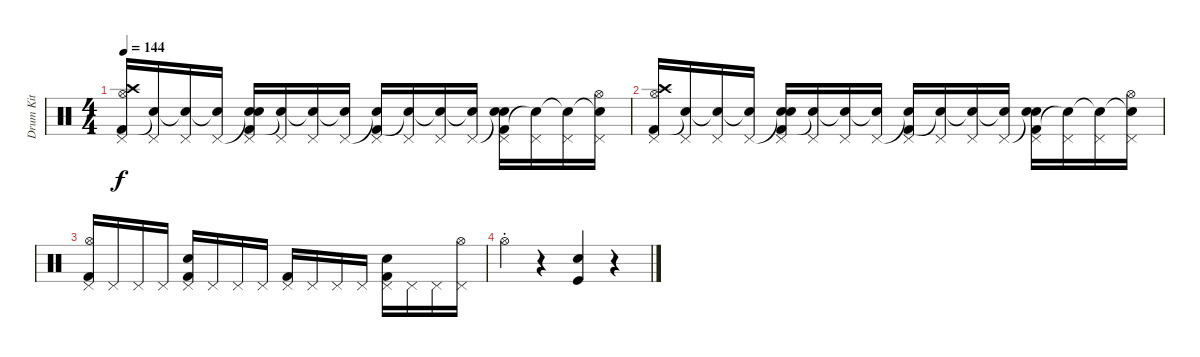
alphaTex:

\track ("Drum Kit" "Drum Kit") {instrument percussion}
\staff {score}
\articulation defaults
\ts (4 4)
\tempo 144
\clef neutral
\ks c
("Kick (hit) 2" "Crash high (hit)" "Hi-Hat (open)" "Pedal Hi-Hat (hit)").16{dy f} ("Snare (hit)"{t} "Pedal Hi-Hat (hit)").16 ("Snare (hit)"{t} "Pedal Hi-Hat (hit)").16 ("Snare (hit)"{t} "Pedal Hi-Hat (hit)").16 ("Kick (hit) 2" "Snare (hit)"{t} "Electric Snare (hit)" "Pedal Hi-Hat (hit)").16 ("Snare (hit)"{t} "Pedal Hi-Hat (hit)").16 ("Snare (hit)"{t} "Pedal Hi-Hat (hit)").16 ("Snare (hit)"{t} "Pedal Hi-Hat (hit)").16 ("Kick (hit) 2" "Snare (hit)"{t} "Pedal Hi-Hat (hit)").16 ("Snare (hit)"{t} "Pedal Hi-Hat (hit)").16 ("Snare (hit)"{t} "Pedal Hi-Hat (hit)").16 ("Snare (hit)"{t} "Pedal Hi-Hat (hit)").16 ("Kick (hit) 2" "Snare (hit)"{t} "Electric Snare (hit)" "Pedal Hi-Hat (hit)").16 ("Snare (hit)"{t} "Pedal Hi-Hat (hit)").16 ("Snare (hit)"{t} "Pedal Hi-Hat (hit)").16 ("Snare (hit)"{t} "Hi-Hat (open)" "Pedal Hi-Hat (hit)").16 |
("Kick (hit) 2" "Crash high (hit)" "Hi-Hat (open)" "Pedal Hi-Hat (hit)").16 ("Snare (hit)"{t} "Pedal Hi-Hat (hit)").16 ("Snare (hit)"{t} "Pedal Hi-Hat (hit)").16 ("Snare (hit)"{t} "Pedal Hi-Hat (hit)").16 ("Kick (hit) 2" "Snare (hit)"{t} "Electric Snare (hit)" "Pedal Hi-Hat (hit)").16 ("Snare (hit)"{t} "Pedal Hi-Hat (hit)").16 ("Snare (hit)"{t} "Pedal Hi-Hat (hit)").16 ("Snare (hit)"{t} "Pedal Hi-Hat (hit)").16 ("Kick (hit) 2" "Snare (hit)"{t} "Pedal Hi-Hat (hit)").16 ("Snare (hit)"{t} "Pedal Hi-Hat (hit)").16 ("Snare (hit)"{t} "Pedal Hi-Hat (hit)").16 ("Snare (hit)"{t} "Pedal Hi-Hat (hit)").16 ("Kick (hit) 2" "Snare (hit)"{t} "Electric Snare (hit)" "Pedal Hi-Hat (hit)").16 ("Snare (hit)"{t} "Pedal Hi-Hat (hit)").16 ("Snare (hit)"{t} "Pedal Hi-Hat (hit)").16 ("Snare (hit)"{t} "Hi-Hat (open)" "Pedal Hi-Hat (hit)").16 |
("Kick (hit) 2" "Hi-Hat (open)" "Pedal Hi-Hat (hit)").16 "Pedal Hi-Hat (hit)".16 "Pedal Hi-Hat (hit)".16 "Pedal Hi-Hat (hit)".16 ("Kick (hit) 2" "Electric Snare (hit)" "Pedal Hi-Hat (hit)").16 "Pedal Hi-Hat (hit)".16 "Pedal Hi-Hat (hit)".16 "Pedal Hi-Hat (hit)".16 ("Kick (hit) 2" "Pedal Hi-Hat (hit)").16 "Pedal Hi-Hat (hit)".16 "Pedal Hi-Hat (hit)".16 "Pedal Hi-Hat (hit)".16 ("Kick (hit) 2" "Electric Snare (hit)" "Pedal Hi-Hat (hit)").16 "Pedal Hi-Hat (hit)".16 "Pedal Hi-Hat (hit)".16 ("Hi-Hat (open)" "Pedal Hi-Hat (hit)").16 |
"Hi-Hat (open)"{st}.4 r.4 ("Electric Snare (hit)" "Kick (hit)").4 r.4
